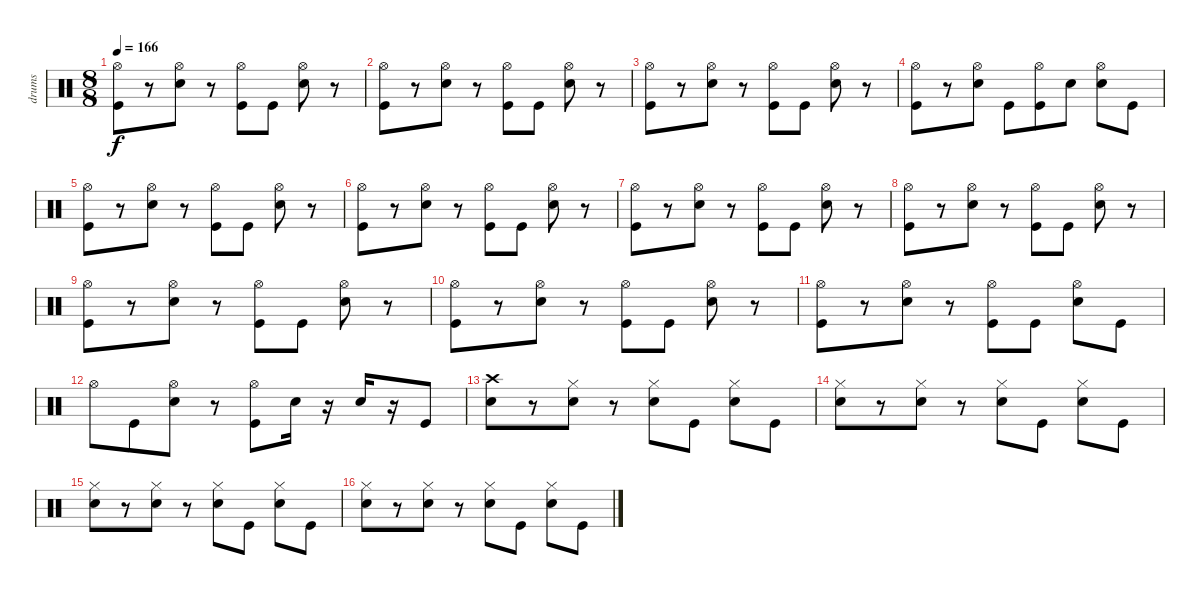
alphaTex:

\track ("drums" "drums") {instrument percussion}
\staff {score}
\articulation defaults
\ts (8 8)
\tempo 166
\clef neutral
\ks c
("Hi-Hat (open)" "Kick (hit)").8{dy f} r.8 ("Hi-Hat (open)" "Snare (hit) 2").8 r.8 ("Hi-Hat (open)" "Kick (hit)").8 "Kick (hit)".8 ("Hi-Hat (open)" "Snare (hit) 2").8 r.8 |
("Hi-Hat (open)" "Kick (hit)").8 r.8 ("Hi-Hat (open)" "Snare (hit) 2").8 r.8 ("Hi-Hat (open)" "Kick (hit)").8 "Kick (hit)".8 ("Hi-Hat (open)" "Snare (hit) 2").8 r.8 |
("Hi-Hat (open)" "Kick (hit)").8 r.8 ("Hi-Hat (open)" "Snare (hit) 2").8 r.8 ("Hi-Hat (open)" "Kick (hit)").8 "Kick (hit)".8 ("Hi-Hat (open)" "Snare (hit) 2").8 r.8 |
("Hi-Hat (open)" "Kick (hit)").8 r.8 ("Hi-Hat (open)" "Snare (hit) 2").8 "Kick (hit)".8 ("Hi-Hat (open)" "Kick (hit)").8 "Snare (hit) 2".8 ("Hi-Hat (open)" "Snare (hit) 2").8 "Kick (hit)".8 |
("Hi-Hat (open)" "Kick (hit)").8 r.8 ("Hi-Hat (open)" "Snare (hit) 2").8 r.8 ("Hi-Hat (open)" "Kick (hit)").8 "Kick (hit)".8 ("Hi-Hat (open)" "Snare (hit) 2").8 r.8 |
("Hi-Hat (open)" "Kick (hit)").8 r.8 ("Hi-Hat (open)" "Snare (hit) 2").8 r.8 ("Hi-Hat (open)" "Kick (hit)").8 "Kick (hit)".8 ("Hi-Hat (open)" "Snare (hit) 2").8 r.8 |
("Hi-Hat (open)" "Kick (hit)").8 r.8 ("Hi-Hat (open)" "Snare (hit) 2").8 r.8 ("Hi-Hat (open)" "Kick (hit)").8 "Kick (hit)".8 ("Hi-Hat (open)" "Snare (hit) 2").8 r.8 |
("Hi-Hat (open)" "Kick (hit)").8 r.8 ("Hi-Hat (open)" "Snare (hit) 2").8 r.8 ("Hi-Hat (open)" "Kick (hit)").8 "Kick (hit)".8 ("Hi-Hat (open)" "Snare (hit) 2").8 r.8 |
("Hi-Hat (open)" "Kick (hit)").8 r.8 ("Hi-Hat (open)" "Snare (hit) 2").8 r.8 ("Hi-Hat (open)" "Kick (hit)").8 "Kick (hit)".8 ("Hi-Hat (open)" "Snare (hit) 2").8 r.8 |
("Hi-Hat (open)" "Kick (hit)").8 r.8 ("Hi-Hat (open)" "Snare (hit) 2").8 r.8 ("Hi-Hat (open)" "Kick (hit)").8 "Kick (hit)".8 ("Hi-Hat (open)" "Snare (hit) 2").8 r.8 |
("Hi-Hat (open)" "Kick (hit)").8 r.8 ("Hi-Hat (open)" "Snare (hit) 2").8 r.8 ("Hi-Hat (open)" "Kick (hit)").8 "Kick (hit)".8 ("Hi-Hat (open)" "Snare (hit) 2").8 "Kick (hit)".8 |
"Hi-Hat (open)".8 "Kick (hit)".8 ("Hi-Hat (open)" "Snare (hit) 2").8 r.8 ("Hi-Hat (open)" "Kick (hit)").8 "Snare (hit) 2".16 r.16 "Snare (hit) 2".16 r.16 "Kick (hit)".8 |
("Crash high (hit)" "Snare (hit) 2").8 r.8 ("Hi-Hat (closed)" "Snare (hit) 2").8 r.8 ("Hi-Hat (closed)" "Snare (hit) 2").8 "Kick (hit)".8 ("Hi-Hat (closed)" "Snare (hit) 2").8 "Kick (hit)".8 |
("Hi-Hat (closed)" "Snare (hit) 2").8 r.8 ("Hi-Hat (closed)" "Snare (hit) 2").8 r.8 ("Hi-Hat (closed)" "Snare (hit) 2").8 "Kick (hit)".8 ("Hi-Hat (closed)" "Snare (hit) 2").8 "Kick (hit)".8 |
("Hi-Hat (closed)" "Snare (hit) 2").8 r.8 ("Hi-Hat (closed)" "Snare (hit) 2").8 r.8 ("Hi-Hat (closed)" "Snare (hit) 2").8 "Kick (hit)".8 ("Hi-Hat (closed)" "Snare (hit) 2").8 "Kick (hit)".8 |
("Hi-Hat (closed)" "Snare (hit) 2").8 r.8 ("Hi-Hat (closed)" "Snare (hit) 2").8 r.8 ("Hi-Hat (closed)" "Snare (hit) 2").8 "Kick (hit)".8 ("Hi-Hat (closed)" "Snare (hit) 2").8 "Kick (hit)".8
